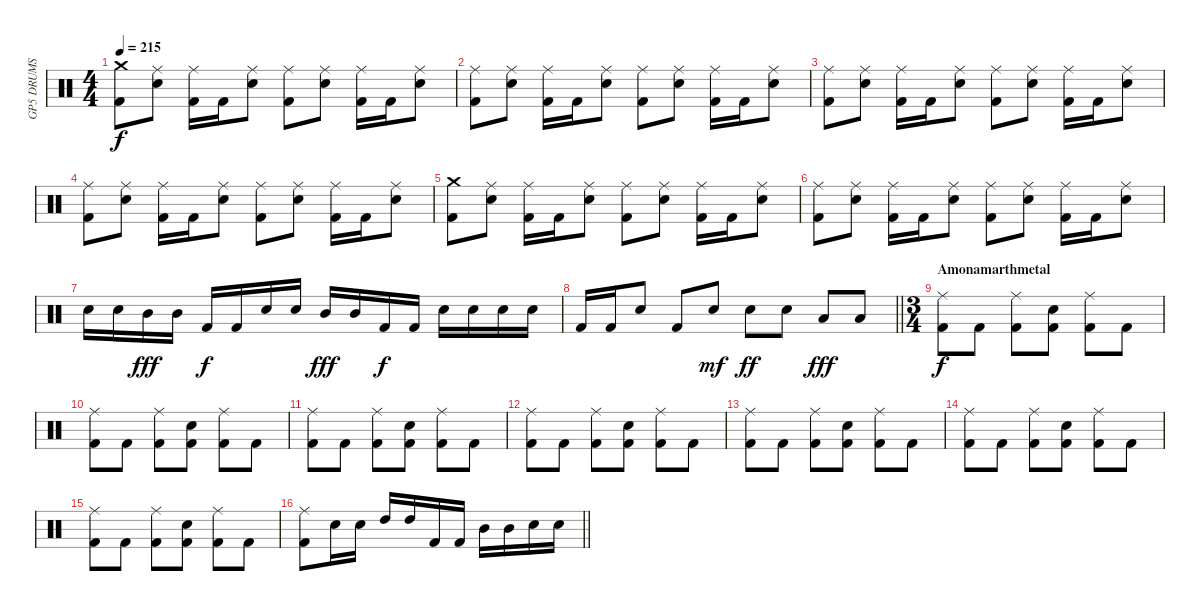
\track ("GP5 DRUMS" "GP5 DRUMS") {instrument percussion}
\staff {score}
\articulation defaults
\ts (4 4)
\tempo 215
\clef neutral
\ks c
("Crash medium (hit)" "Kick (hit) 2").8{dy f} ("Ride (middle)" "Electric Snare (hit)").8 ("Ride (middle)" "Kick (hit) 2").16 "Kick (hit) 2".16 ("Ride (middle)" "Electric Snare (hit)").8 ("Ride (middle)" "Kick (hit) 2").8 ("Ride (middle)" "Electric Snare (hit)").8 ("Ride (middle)" "Kick (hit) 2").16 "Kick (hit) 2".16 ("Ride (middle)" "Electric Snare (hit)").8 |
("Ride (middle)" "Kick (hit) 2").8 ("Ride (middle)" "Electric Snare (hit)").8 ("Ride (middle)" "Kick (hit) 2").16 "Kick (hit) 2".16 ("Ride (middle)" "Electric Snare (hit)").8 ("Ride (middle)" "Kick (hit) 2").8 ("Ride (middle)" "Electric Snare (hit)").8 ("Ride (middle)" "Kick (hit) 2").16 "Kick (hit) 2".16 ("Ride (middle)" "Electric Snare (hit)").8 |
("Ride (middle)" "Kick (hit) 2").8 ("Ride (middle)" "Electric Snare (hit)").8 ("Ride (middle)" "Kick (hit) 2").16 "Kick (hit) 2".16 ("Ride (middle)" "Electric Snare (hit)").8 ("Ride (middle)" "Kick (hit) 2").8 ("Ride (middle)" "Electric Snare (hit)").8 ("Ride (middle)" "Kick (hit) 2").16 "Kick (hit) 2".16 ("Ride (middle)" "Electric Snare (hit)").8 |
("Ride (middle)" "Kick (hit) 2").8 ("Ride (middle)" "Electric Snare (hit)").8 ("Ride (middle)" "Kick (hit) 2").16 "Kick (hit) 2".16 ("Ride (middle)" "Electric Snare (hit)").8 ("Ride (middle)" "Kick (hit) 2").8 ("Ride (middle)" "Electric Snare (hit)").8 ("Ride (middle)" "Kick (hit) 2").16 "Kick (hit) 2".16 ("Ride (middle)" "Electric Snare (hit)").8 |
("Crash medium (hit)" "Kick (hit) 2").8 ("Ride (middle)" "Electric Snare (hit)").8 ("Ride (middle)" "Kick (hit) 2").16 "Kick (hit) 2".16 ("Ride (middle)" "Electric Snare (hit)").8 ("Ride (middle)" "Kick (hit) 2").8 ("Ride (middle)" "Electric Snare (hit)").8 ("Ride (middle)" "Kick (hit) 2").16 "Kick (hit) 2".16 ("Ride (middle)" "Electric Snare (hit)").8 |
("Ride (middle)" "Kick (hit) 2").8 ("Ride (middle)" "Electric Snare (hit)").8 ("Ride (middle)" "Kick (hit) 2").16 "Kick (hit) 2".16 ("Ride (middle)" "Electric Snare (hit)").8 ("Ride (middle)" "Kick (hit) 2").8 ("Ride (middle)" "Electric Snare (hit)").8 ("Ride (middle)" "Kick (hit) 2").16 "Kick (hit) 2".16 ("Ride (middle)" "Electric Snare (hit)").8 |
"Electric Snare (hit)".16 "Electric Snare (hit)".16 "Mid Tom (hit)".16{dy fff} "Mid Tom (hit)".16 "Kick (hit) 2".16{dy f} "Kick (hit) 2".16 "Electric Snare (hit)".16 "Electric Snare (hit)".16 "Mid Tom (hit)".16{dy fff} "Mid Tom (hit)".16 "Kick (hit) 2".16{dy f} "Kick (hit) 2".16 "Electric Snare (hit)".16 "Electric Snare (hit)".16 "Electric Snare (hit)".16 "Electric Snare (hit)".16 |
\barLineRight lightlight "Kick (hit) 2".16 "Kick (hit) 2".16 "Electric Snare (hit)".8 "Kick (hit) 2".8 "Electric Snare (hit)".8{dy mf} "Electric Snare (hit)".8{dy ff} "Electric Snare (hit)".8 "Low Tom (hit)".8{dy fff} "Low Tom (hit)".8
|
\ts (3 4)
\section ("" "Amonamarthmetal")
("Ride (middle)" "Kick (hit) 2").8{dy f} "Kick (hit) 2".8 ("Ride (middle)" "Kick (hit) 2").8 ("Electric Snare (hit)" "Kick (hit) 2").8 ("Ride (middle)" "Kick (hit) 2").8 "Kick (hit) 2".8 |
("Ride (middle)" "Kick (hit) 2").8 "Kick (hit) 2".8 ("Ride (middle)" "Kick (hit) 2").8 ("Electric Snare (hit)" "Kick (hit) 2").8 ("Ride (middle)" "Kick (hit) 2").8 "Kick (hit) 2".8 |
("Ride (middle)" "Kick (hit) 2").8 "Kick (hit) 2".8 ("Ride (middle)" "Kick (hit) 2").8 ("Electric Snare (hit)" "Kick (hit) 2").8 ("Ride (middle)" "Kick (hit) 2").8 "Kick (hit) 2".8 |
("Ride (middle)" "Kick (hit) 2").8 "Kick (hit) 2".8 ("Ride (middle)" "Kick (hit) 2").8 ("Electric Snare (hit)" "Kick (hit) 2").8 ("Ride (middle)" "Kick (hit) 2").8 "Kick (hit) 2".8 |
("Ride (middle)" "Kick (hit) 2").8 "Kick (hit) 2".8 ("Ride (middle)" "Kick (hit) 2").8 ("Electric Snare (hit)" "Kick (hit) 2").8 ("Ride (middle)" "Kick (hit) 2").8 "Kick (hit) 2".8 |
("Ride (middle)" "Kick (hit) 2").8 "Kick (hit) 2".8 ("Ride (middle)" "Kick (hit) 2").8 ("Electric Snare (hit)" "Kick (hit) 2").8 ("Ride (middle)" "Kick (hit) 2").8 "Kick (hit) 2".8 |
("Ride (middle)" "Kick (hit) 2").8 "Kick (hit) 2".8 ("Ride (middle)" "Kick (hit) 2").8 ("Electric Snare (hit)" "Kick (hit) 2").8 ("Ride (middle)" "Kick (hit) 2").8 "Kick (hit) 2".8 |
\barLineRight lightlight
("Ride (middle)" "Kick (hit) 2").8 "Electric Snare (hit)".16 "Electric Snare (hit)".16 "High Tom (hit)".16 "High Tom (hit)".16 "Kick (hit) 2".16 "Kick (hit) 2".16 "Mid Tom (hit)".16 "Mid Tom (hit)".16 "Electric Snare (hit)".16 "Electric Snare (hit)".16
